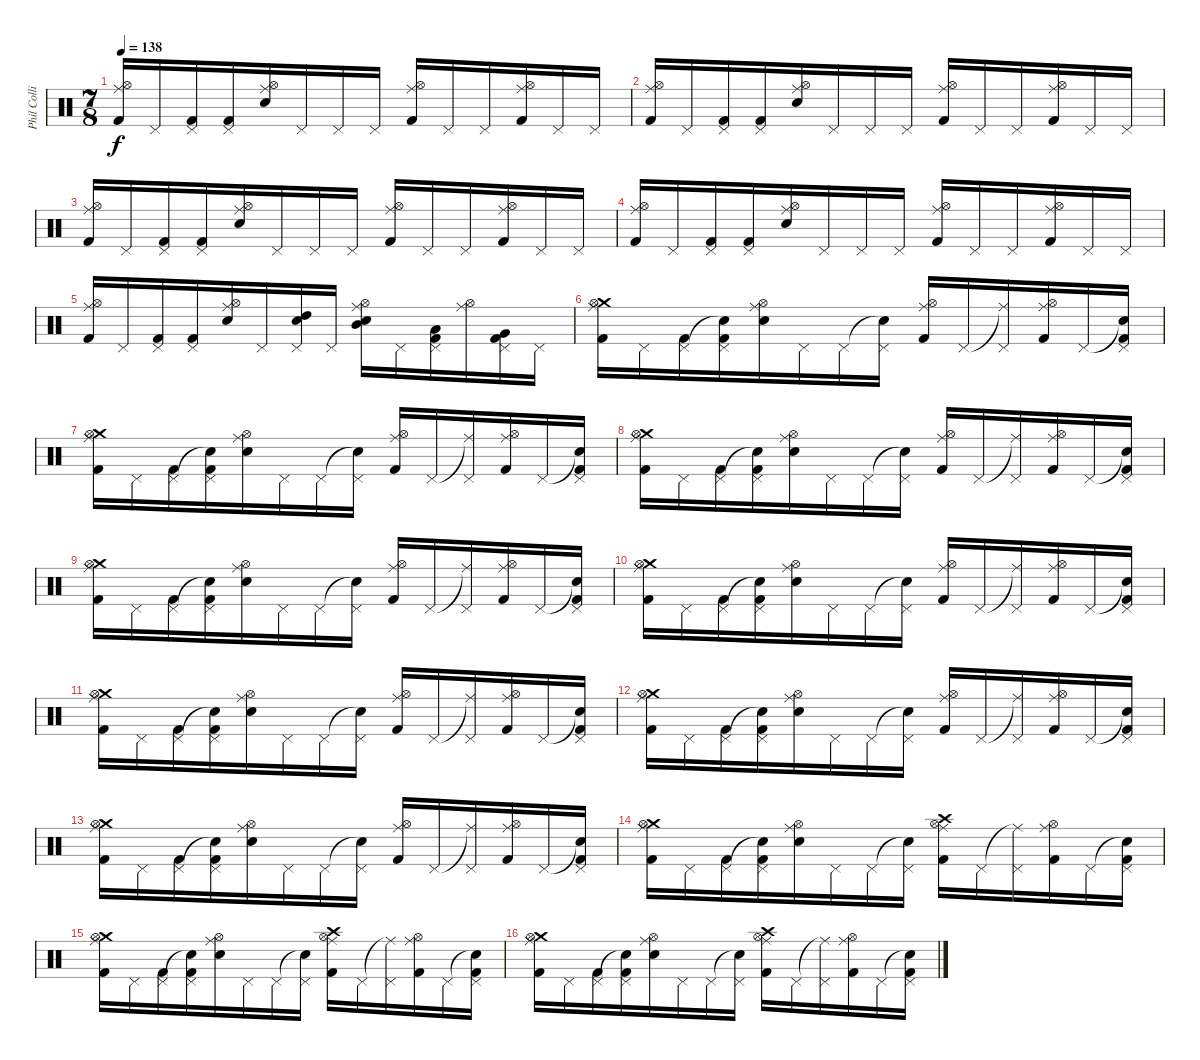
\track ("Phil Collins (drums)" "Phil Colli") {instrument percussion}
\staff {score}
\articulation defaults
\ts (7 8)
\tempo 138
\clef neutral
\ks c
("Ride (middle)" "Hi-Hat (open)" "Kick (hit) 2").16{dy f} "Pedal Hi-Hat (hit)".16 ("Pedal Hi-Hat (hit)" "Kick (hit) 2").16 ("Pedal Hi-Hat (hit)" "Kick (hit) 2").16 ("Ride (middle)" "Hi-Hat (open)" "Electric Snare (hit)").16 "Pedal Hi-Hat (hit)".16 "Pedal Hi-Hat (hit)".16 "Pedal Hi-Hat (hit)".16 ("Ride (middle)" "Hi-Hat (open)" "Kick (hit) 2").16 "Pedal Hi-Hat (hit)".16 "Pedal Hi-Hat (hit)".16 ("Ride (middle)" "Hi-Hat (open)" "Kick (hit) 2").16 "Pedal Hi-Hat (hit)".16 "Pedal Hi-Hat (hit)".16 |
("Ride (middle)" "Hi-Hat (open)" "Kick (hit) 2").16 "Pedal Hi-Hat (hit)".16 ("Pedal Hi-Hat (hit)" "Kick (hit) 2").16 ("Pedal Hi-Hat (hit)" "Kick (hit) 2").16 ("Ride (middle)" "Hi-Hat (open)" "Electric Snare (hit)").16 "Pedal Hi-Hat (hit)".16 "Pedal Hi-Hat (hit)".16 "Pedal Hi-Hat (hit)".16 ("Ride (middle)" "Hi-Hat (open)" "Kick (hit) 2").16 "Pedal Hi-Hat (hit)".16 "Pedal Hi-Hat (hit)".16 ("Ride (middle)" "Hi-Hat (open)" "Kick (hit) 2").16 "Pedal Hi-Hat (hit)".16 "Pedal Hi-Hat (hit)".16 |
("Ride (middle)" "Hi-Hat (open)" "Kick (hit) 2").16 "Pedal Hi-Hat (hit)".16 ("Pedal Hi-Hat (hit)" "Kick (hit) 2").16 ("Pedal Hi-Hat (hit)" "Kick (hit) 2").16 ("Ride (middle)" "Hi-Hat (open)" "Electric Snare (hit)").16 "Pedal Hi-Hat (hit)".16 "Pedal Hi-Hat (hit)".16 "Pedal Hi-Hat (hit)".16 ("Ride (middle)" "Hi-Hat (open)" "Kick (hit) 2").16 "Pedal Hi-Hat (hit)".16 "Pedal Hi-Hat (hit)".16 ("Ride (middle)" "Hi-Hat (open)" "Kick (hit) 2").16 "Pedal Hi-Hat (hit)".16 "Pedal Hi-Hat (hit)".16 |
("Ride (middle)" "Hi-Hat (open)" "Kick (hit) 2").16 "Pedal Hi-Hat (hit)".16 ("Pedal Hi-Hat (hit)" "Kick (hit) 2").16 ("Pedal Hi-Hat (hit)" "Kick (hit) 2").16 ("Ride (middle)" "Hi-Hat (open)" "Electric Snare (hit)").16 "Pedal Hi-Hat (hit)".16 "Pedal Hi-Hat (hit)".16 "Pedal Hi-Hat (hit)".16 ("Ride (middle)" "Hi-Hat (open)" "Kick (hit) 2").16 "Pedal Hi-Hat (hit)".16 "Pedal Hi-Hat (hit)".16 ("Ride (middle)" "Hi-Hat (open)" "Kick (hit) 2").16 "Pedal Hi-Hat (hit)".16 "Pedal Hi-Hat (hit)".16 |
("Ride (middle)" "Hi-Hat (open)" "Kick (hit) 2").16 "Pedal Hi-Hat (hit)".16 ("Pedal Hi-Hat (hit)" "Kick (hit) 2").16 ("Pedal Hi-Hat (hit)" "Kick (hit) 2").16 ("Ride (middle)" "Hi-Hat (open)" "Electric Snare (hit)").16 "Pedal Hi-Hat (hit)".16 ("High Tom (hit)" "Pedal Hi-Hat (hit)" "Electric Snare (hit)").16 "Pedal Hi-Hat (hit)".16 ("Mid Tom (hit)" "Ride (middle)" "Hi-Hat (open)" "Electric Snare (hit)").16 "Pedal Hi-Hat (hit)".16 ("Low Tom (hit)" "Pedal Hi-Hat (hit)" "Kick (hit) 2").16 ("Ride (middle)" "Hi-Hat (open)").16 ("Very Low Tom (hit)" "Pedal Hi-Hat (hit)" "Kick (hit) 2").16 "Pedal Hi-Hat (hit)".16 |
("Crash medium (hit)" "Ride (middle)" "Hi-Hat (open)" "Kick (hit) 2").16 "Pedal Hi-Hat (hit)".16 ("Pedal Hi-Hat (hit)" "Kick (hit) 2").16 ("Snare (hit)"{t} "Pedal Hi-Hat (hit)" "Kick (hit) 2").16 ("Ride (middle)" "Hi-Hat (open)" "Electric Snare (hit)").16 "Pedal Hi-Hat (hit)".16 "Pedal Hi-Hat (hit)".16 ("Snare (hit)"{t} "Pedal Hi-Hat (hit)").16 ("Ride (middle)" "Hi-Hat (open)" "Kick (hit) 2").16 "Pedal Hi-Hat (hit)".16 ("Ride (middle)"{t} "Pedal Hi-Hat (hit)").16 ("Ride (middle)" "Hi-Hat (open)" "Kick (hit) 2").16 "Pedal Hi-Hat (hit)".16 ("Snare (hit)"{t} "Pedal Hi-Hat (hit)" "Kick (hit) 2").16 |
("Crash medium (hit)" "Ride (middle)" "Hi-Hat (open)" "Kick (hit) 2").16 "Pedal Hi-Hat (hit)".16 ("Pedal Hi-Hat (hit)" "Kick (hit) 2").16 ("Snare (hit)"{t} "Pedal Hi-Hat (hit)" "Kick (hit) 2").16 ("Ride (middle)" "Hi-Hat (open)" "Electric Snare (hit)").16 "Pedal Hi-Hat (hit)".16 "Pedal Hi-Hat (hit)".16 ("Snare (hit)"{t} "Pedal Hi-Hat (hit)").16 ("Ride (middle)" "Hi-Hat (open)" "Kick (hit) 2").16 "Pedal Hi-Hat (hit)".16 ("Ride (middle)"{t} "Pedal Hi-Hat (hit)").16 ("Ride (middle)" "Hi-Hat (open)" "Kick (hit) 2").16 "Pedal Hi-Hat (hit)".16 ("Snare (hit)"{t} "Pedal Hi-Hat (hit)" "Kick (hit) 2").16 |
("Crash medium (hit)" "Ride (middle)" "Hi-Hat (open)" "Kick (hit) 2").16 "Pedal Hi-Hat (hit)".16 ("Pedal Hi-Hat (hit)" "Kick (hit) 2").16 ("Snare (hit)"{t} "Pedal Hi-Hat (hit)" "Kick (hit) 2").16 ("Ride (middle)" "Hi-Hat (open)" "Electric Snare (hit)").16 "Pedal Hi-Hat (hit)".16 "Pedal Hi-Hat (hit)".16 ("Snare (hit)"{t} "Pedal Hi-Hat (hit)").16 ("Ride (middle)" "Hi-Hat (open)" "Kick (hit) 2").16 "Pedal Hi-Hat (hit)".16 ("Ride (middle)"{t} "Pedal Hi-Hat (hit)").16 ("Ride (middle)" "Hi-Hat (open)" "Kick (hit) 2").16 "Pedal Hi-Hat (hit)".16 ("Snare (hit)"{t} "Pedal Hi-Hat (hit)" "Kick (hit) 2").16 |
("Crash medium (hit)" "Ride (middle)" "Hi-Hat (open)" "Kick (hit) 2").16 "Pedal Hi-Hat (hit)".16 ("Pedal Hi-Hat (hit)" "Kick (hit) 2").16 ("Snare (hit)"{t} "Pedal Hi-Hat (hit)" "Kick (hit) 2").16 ("Ride (middle)" "Hi-Hat (open)" "Electric Snare (hit)").16 "Pedal Hi-Hat (hit)".16 "Pedal Hi-Hat (hit)".16 ("Snare (hit)"{t} "Pedal Hi-Hat (hit)").16 ("Ride (middle)" "Hi-Hat (open)" "Kick (hit) 2").16 "Pedal Hi-Hat (hit)".16 ("Ride (middle)"{t} "Pedal Hi-Hat (hit)").16 ("Ride (middle)" "Hi-Hat (open)" "Kick (hit) 2").16 "Pedal Hi-Hat (hit)".16 ("Snare (hit)"{t} "Pedal Hi-Hat (hit)" "Kick (hit) 2").16 |
("Crash medium (hit)" "Ride (middle)" "Hi-Hat (open)" "Kick (hit) 2").16 "Pedal Hi-Hat (hit)".16 ("Pedal Hi-Hat (hit)" "Kick (hit) 2").16 ("Snare (hit)"{t} "Pedal Hi-Hat (hit)" "Kick (hit) 2").16 ("Ride (middle)" "Hi-Hat (open)" "Electric Snare (hit)").16 "Pedal Hi-Hat (hit)".16 "Pedal Hi-Hat (hit)".16 ("Snare (hit)"{t} "Pedal Hi-Hat (hit)").16 ("Ride (middle)" "Hi-Hat (open)" "Kick (hit) 2").16 "Pedal Hi-Hat (hit)".16 ("Ride (middle)"{t} "Pedal Hi-Hat (hit)").16 ("Ride (middle)" "Hi-Hat (open)" "Kick (hit) 2").16 "Pedal Hi-Hat (hit)".16 ("Snare (hit)"{t} "Pedal Hi-Hat (hit)" "Kick (hit) 2").16 |
("Crash medium (hit)" "Ride (middle)" "Hi-Hat (open)" "Kick (hit) 2").16 "Pedal Hi-Hat (hit)".16 ("Pedal Hi-Hat (hit)" "Kick (hit) 2").16 ("Snare (hit)"{t} "Pedal Hi-Hat (hit)" "Kick (hit) 2").16 ("Ride (middle)" "Hi-Hat (open)" "Electric Snare (hit)").16 "Pedal Hi-Hat (hit)".16 "Pedal Hi-Hat (hit)".16 ("Snare (hit)"{t} "Pedal Hi-Hat (hit)").16 ("Ride (middle)" "Hi-Hat (open)" "Kick (hit) 2").16 "Pedal Hi-Hat (hit)".16 ("Ride (middle)"{t} "Pedal Hi-Hat (hit)").16 ("Ride (middle)" "Hi-Hat (open)" "Kick (hit) 2").16 "Pedal Hi-Hat (hit)".16 ("Snare (hit)"{t} "Pedal Hi-Hat (hit)" "Kick (hit) 2").16 |
("Crash medium (hit)" "Ride (middle)" "Hi-Hat (open)" "Kick (hit) 2").16 "Pedal Hi-Hat (hit)".16 ("Pedal Hi-Hat (hit)" "Kick (hit) 2").16 ("Snare (hit)"{t} "Pedal Hi-Hat (hit)" "Kick (hit) 2").16 ("Ride (middle)" "Hi-Hat (open)" "Electric Snare (hit)").16 "Pedal Hi-Hat (hit)".16 "Pedal Hi-Hat (hit)".16 ("Snare (hit)"{t} "Pedal Hi-Hat (hit)").16 ("Ride (middle)" "Hi-Hat (open)" "Kick (hit) 2").16 "Pedal Hi-Hat (hit)".16 ("Ride (middle)"{t} "Pedal Hi-Hat (hit)").16 ("Ride (middle)" "Hi-Hat (open)" "Kick (hit) 2").16 "Pedal Hi-Hat (hit)".16 ("Snare (hit)"{t} "Pedal Hi-Hat (hit)" "Kick (hit) 2").16 |
("Crash medium (hit)" "Ride (middle)" "Hi-Hat (open)" "Kick (hit) 2").16 "Pedal Hi-Hat (hit)".16 ("Pedal Hi-Hat (hit)" "Kick (hit) 2").16 ("Snare (hit)"{t} "Pedal Hi-Hat (hit)" "Kick (hit) 2").16 ("Ride (middle)" "Hi-Hat (open)" "Electric Snare (hit)").16 "Pedal Hi-Hat (hit)".16 "Pedal Hi-Hat (hit)".16 ("Snare (hit)"{t} "Pedal Hi-Hat (hit)").16 ("Ride (middle)" "Hi-Hat (open)" "Kick (hit) 2").16 "Pedal Hi-Hat (hit)".16 ("Ride (middle)"{t} "Pedal Hi-Hat (hit)").16 ("Ride (middle)" "Hi-Hat (open)" "Kick (hit) 2").16 "Pedal Hi-Hat (hit)".16 ("Snare (hit)"{t} "Pedal Hi-Hat (hit)" "Kick (hit) 2").16 |
("Crash medium (hit)" "Ride (middle)" "Hi-Hat (open)" "Kick (hit) 2").16 "Pedal Hi-Hat (hit)".16 ("Pedal Hi-Hat (hit)" "Kick (hit) 2").16 ("Snare (hit)"{t} "Pedal Hi-Hat (hit)" "Kick (hit) 2").16 ("Ride (middle)" "Hi-Hat (open)" "Electric Snare (hit)").16 "Pedal Hi-Hat (hit)".16 "Pedal Hi-Hat (hit)".16 ("Snare (hit)"{t} "Pedal Hi-Hat (hit)").16 ("Crash high (hit)" "Ride (middle)" "Hi-Hat (open)" "Kick (hit) 2").16 "Pedal Hi-Hat (hit)".16 ("Ride (middle)"{t} "Pedal Hi-Hat (hit)").16 ("Ride (middle)" "Hi-Hat (open)" "Kick (hit) 2").16 "Pedal Hi-Hat (hit)".16 ("Snare (hit)"{t} "Pedal Hi-Hat (hit)" "Kick (hit) 2").16 |
("Crash medium (hit)" "Ride (middle)" "Hi-Hat (open)" "Kick (hit) 2").16 "Pedal Hi-Hat (hit)".16 ("Pedal Hi-Hat (hit)" "Kick (hit) 2").16 ("Snare (hit)"{t} "Pedal Hi-Hat (hit)" "Kick (hit) 2").16 ("Ride (middle)" "Hi-Hat (open)" "Electric Snare (hit)").16 "Pedal Hi-Hat (hit)".16 "Pedal Hi-Hat (hit)".16 ("Snare (hit)"{t} "Pedal Hi-Hat (hit)").16 ("Crash high (hit)" "Ride (middle)" "Hi-Hat (open)" "Kick (hit) 2").16 "Pedal Hi-Hat (hit)".16 ("Ride (middle)"{t} "Pedal Hi-Hat (hit)").16 ("Ride (middle)" "Hi-Hat (open)" "Kick (hit) 2").16 "Pedal Hi-Hat (hit)".16 ("Snare (hit)"{t} "Pedal Hi-Hat (hit)" "Kick (hit) 2").16 |
("Crash medium (hit)" "Ride (middle)" "Hi-Hat (open)" "Kick (hit) 2").16 "Pedal Hi-Hat (hit)".16 ("Pedal Hi-Hat (hit)" "Kick (hit) 2").16 ("Snare (hit)"{t} "Pedal Hi-Hat (hit)" "Kick (hit) 2").16 ("Ride (middle)" "Hi-Hat (open)" "Electric Snare (hit)").16 "Pedal Hi-Hat (hit)".16 "Pedal Hi-Hat (hit)".16 ("Snare (hit)"{t} "Pedal Hi-Hat (hit)").16 ("Crash high (hit)" "Ride (middle)" "Hi-Hat (open)" "Kick (hit) 2").16 "Pedal Hi-Hat (hit)".16 ("Ride (middle)"{t} "Pedal Hi-Hat (hit)").16 ("Ride (middle)" "Hi-Hat (open)" "Kick (hit) 2").16 "Pedal Hi-Hat (hit)".16 ("Snare (hit)"{t} "Pedal Hi-Hat (hit)" "Kick (hit) 2").16
